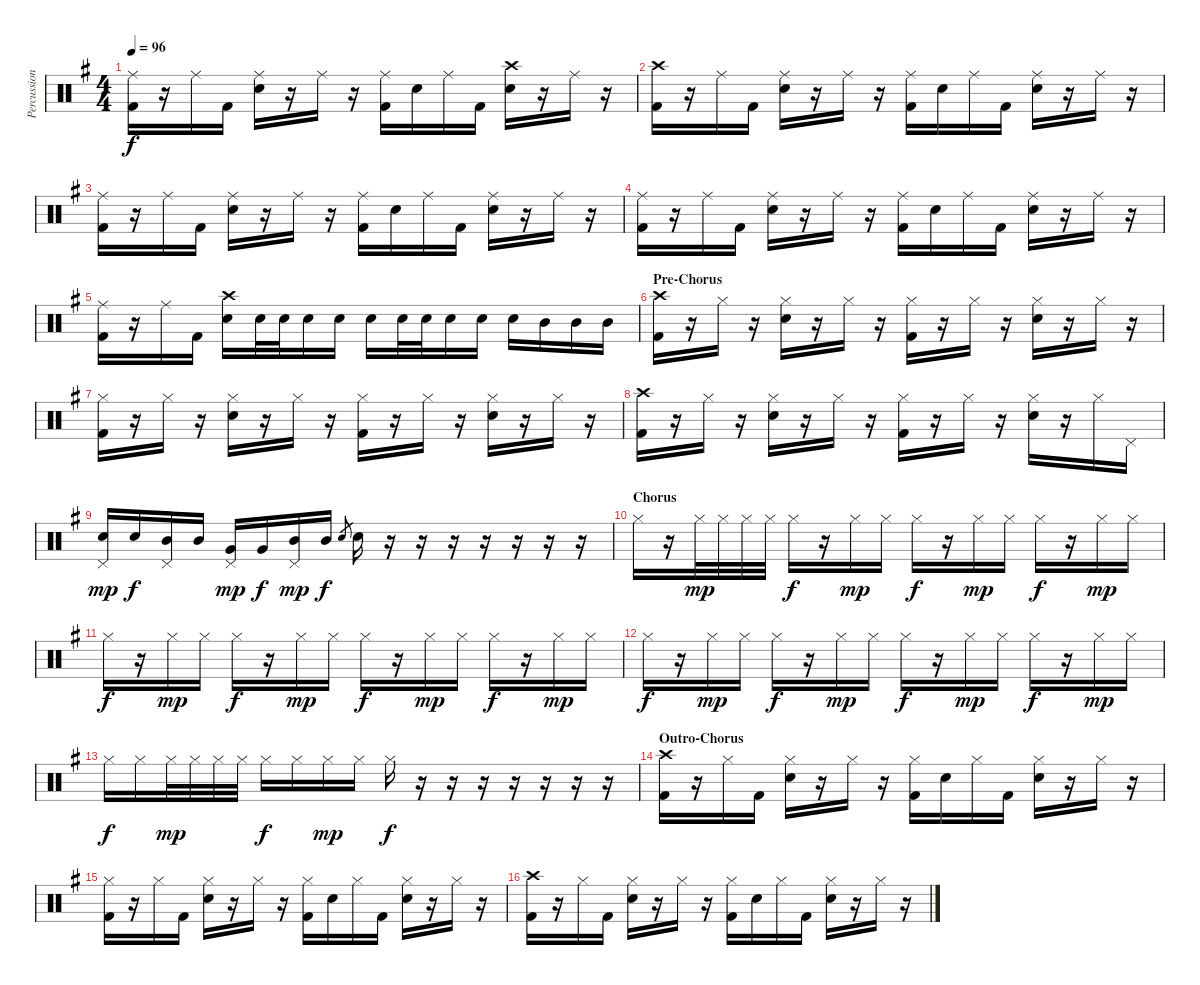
\track ("Percussion" "Percussion") {instrument percussion}
\staff {score}
\articulation defaults
\ts (4 4)
\tempo 96
\clef neutral
\ks g
("Ride (middle)" "Kick (hit) 2").16{dy f} r.16 "Ride (middle)".16 "Kick (hit) 2".16 ("Ride (middle)" "Snare (hit) 2").16 r.16 "Ride (middle)".16 r.16 ("Ride (middle)" "Kick (hit) 2").16 "Snare (hit) 2".16 "Ride (middle)".16 "Kick (hit) 2".16 ("Crash high (hit)" "Snare (hit) 2").16 r.16 "Ride (middle)".16 r.16 |
("Crash high (hit)" "Kick (hit) 2").16 r.16 "Ride (middle)".16 "Kick (hit) 2".16 ("Ride (middle)" "Snare (hit) 2").16 r.16 "Ride (middle)".16 r.16 ("Ride (middle)" "Kick (hit) 2").16 "Snare (hit) 2".16 "Ride (middle)".16 "Kick (hit) 2".16 ("Ride (middle)" "Snare (hit) 2").16 r.16 "Ride (middle)".16 r.16 |
("Ride (middle)" "Kick (hit) 2").16 r.16 "Ride (middle)".16 "Kick (hit) 2".16 ("Ride (middle)" "Snare (hit) 2").16 r.16 "Ride (middle)".16 r.16 ("Ride (middle)" "Kick (hit) 2").16 "Snare (hit) 2".16 "Ride (middle)".16 "Kick (hit) 2".16 ("Ride (middle)" "Snare (hit) 2").16 r.16 "Ride (middle)".16 r.16 |
("Ride (middle)" "Kick (hit) 2").16 r.16 "Ride (middle)".16 "Kick (hit) 2".16 ("Ride (middle)" "Snare (hit) 2").16 r.16 "Ride (middle)".16 r.16 ("Ride (middle)" "Kick (hit) 2").16 "Snare (hit) 2".16 "Ride (middle)".16 "Kick (hit) 2".16 ("Ride (middle)" "Snare (hit) 2").16 r.16 "Ride (middle)".16 r.16 |
("Ride (middle)" "Kick (hit) 2").16 r.16 "Ride (middle)".16 "Kick (hit) 2".16 ("Crash high (hit)" "Snare (hit) 2").16 "Snare (hit) 2".32 "Snare (hit) 2".32 "Snare (hit) 2".16 "Snare (hit) 2".16 "Snare (hit) 2".16 "Snare (hit) 2".32 "Snare (hit) 2".32 "Snare (hit) 2".16 "Snare (hit) 2".16 "Snare (hit) 2".16 "Mid Tom (hit)".16 "Mid Tom (hit)".16 "Mid Tom (hit)".16 |
\section ("" "Pre-Chorus")
("Crash high (hit)" "Kick (hit) 2").16 r.16 "Hi-Hat (closed)".16 r.16 ("Hi-Hat (closed)" "Snare (hit) 2").16 r.16 "Hi-Hat (closed)".16 r.16 ("Hi-Hat (closed)" "Kick (hit) 2").16 r.16 "Hi-Hat (closed)".16 r.16 ("Hi-Hat (closed)" "Snare (hit) 2").16 r.16 "Hi-Hat (closed)".16 r.16 |
("Hi-Hat (closed)" "Kick (hit) 2").16 r.16 "Hi-Hat (closed)".16 r.16 ("Hi-Hat (closed)" "Snare (hit) 2").16 r.16 "Hi-Hat (closed)".16 r.16 ("Hi-Hat (closed)" "Kick (hit) 2").16 r.16 "Hi-Hat (closed)".16 r.16 ("Hi-Hat (closed)" "Snare (hit) 2").16 r.16 "Hi-Hat (closed)".16 r.16 |
("Crash high (hit)" "Kick (hit) 2").16 r.16 "Hi-Hat (closed)".16 r.16 ("Hi-Hat (closed)" "Snare (hit) 2").16 r.16 "Hi-Hat (closed)".16 r.16 ("Hi-Hat (closed)" "Kick (hit) 2").16 r.16 "Hi-Hat (closed)".16 r.16 ("Hi-Hat (closed)" "Snare (hit) 2").16 r.16 "Hi-Hat (closed)".16 "Pedal Hi-Hat (hit)".16 |
("Pedal Hi-Hat (hit)" "Snare (hit) 2").16{dy mp} "Snare (hit) 2".16{dy f} ("Pedal Hi-Hat (hit)" "Mid Tom (hit)").16 "Mid Tom (hit)".16 ("Pedal Hi-Hat (hit)" "Very Low Tom (hit)").16{dy mp} "Very Low Tom (hit)".16{dy f} ("Pedal Hi-Hat (hit)" "Mid Tom (hit)").16{dy mp} "Mid Tom (hit)".16{dy f} "Snare (hit) 2".8{gr} "Snare (hit) 2".16 r.16 r.16 r.16 r.16 r.16 r.16 r.16 |
\section ("" "Chorus")
"Hi-Hat (closed)".16 r.16 "Hi-Hat (closed)".32{dy mp} "Hi-Hat (closed)".32 "Hi-Hat (closed)".32 "Hi-Hat (closed)".32 "Hi-Hat (closed)".16{dy f} r.16 "Hi-Hat (closed)".16{dy mp} "Hi-Hat (closed)".16 "Hi-Hat (closed)".16{dy f} r.16 "Hi-Hat (closed)".16{dy mp} "Hi-Hat (closed)".16 "Hi-Hat (closed)".16{dy f} r.16 "Hi-Hat (closed)".16{dy mp} "Hi-Hat (closed)".16 |
"Hi-Hat (closed)".16{dy f} r.16 "Hi-Hat (closed)".16{dy mp} "Hi-Hat (closed)".16 "Hi-Hat (closed)".16{dy f} r.16 "Hi-Hat (closed)".16{dy mp} "Hi-Hat (closed)".16 "Hi-Hat (closed)".16{dy f} r.16 "Hi-Hat (closed)".16{dy mp} "Hi-Hat (closed)".16 "Hi-Hat (closed)".16{dy f} r.16 "Hi-Hat (closed)".16{dy mp} "Hi-Hat (closed)".16 |
"Hi-Hat (closed)".16{dy f} r.16 "Hi-Hat (closed)".16{dy mp} "Hi-Hat (closed)".16 "Hi-Hat (closed)".16{dy f} r.16 "Hi-Hat (closed)".16{dy mp} "Hi-Hat (closed)".16 "Hi-Hat (closed)".16{dy f} r.16 "Hi-Hat (closed)".16{dy mp} "Hi-Hat (closed)".16 "Hi-Hat (closed)".16{dy f} r.16 "Hi-Hat (closed)".16{dy mp} "Hi-Hat (closed)".16 |
"Hi-Hat (closed)".16{dy f} "Hi-Hat (closed)".16 "Hi-Hat (closed)".32{dy mp} "Hi-Hat (closed)".32 "Hi-Hat (closed)".32 "Hi-Hat (closed)".32 "Hi-Hat (closed)".16{dy f} "Hi-Hat (closed)".16 "Hi-Hat (closed)".16{dy mp} "Hi-Hat (closed)".16 "Hi-Hat (closed)".16{dy f} r.16 r.16 r.16 r.16 r.16 r.16 r.16 |
\section ("" "Outro-Chorus")
("Crash high (hit)" "Kick (hit) 2").16 r.16 "Hi-Hat (closed)".16 "Kick (hit) 2".16 ("Hi-Hat (closed)" "Snare (hit) 2").16 r.16 "Hi-Hat (closed)".16 r.16 ("Hi-Hat (closed)" "Kick (hit) 2").16 "Snare (hit) 2".16 "Hi-Hat (closed)".16 "Kick (hit) 2".16 ("Hi-Hat (closed)" "Snare (hit) 2").16 r.16 "Hi-Hat (closed)".16 r.16 |
("Hi-Hat (closed)" "Kick (hit) 2").16 r.16 "Hi-Hat (closed)".16 "Kick (hit) 2".16 ("Hi-Hat (closed)" "Snare (hit) 2").16 r.16 "Hi-Hat (closed)".16 r.16 ("Hi-Hat (closed)" "Kick (hit) 2").16 "Snare (hit) 2".16 "Hi-Hat (closed)".16 "Kick (hit) 2".16 ("Hi-Hat (closed)" "Snare (hit) 2").16 r.16 "Hi-Hat (closed)".16 r.16 |
("Crash high (hit)" "Kick (hit) 2").16 r.16 "Hi-Hat (closed)".16 "Kick (hit) 2".16 ("Hi-Hat (closed)" "Snare (hit) 2").16 r.16 "Hi-Hat (closed)".16 r.16 ("Hi-Hat (closed)" "Kick (hit) 2").16 "Snare (hit) 2".16 "Hi-Hat (closed)".16 "Kick (hit) 2".16 ("Hi-Hat (closed)" "Snare (hit) 2").16 r.16 "Hi-Hat (closed)".16 r.16
